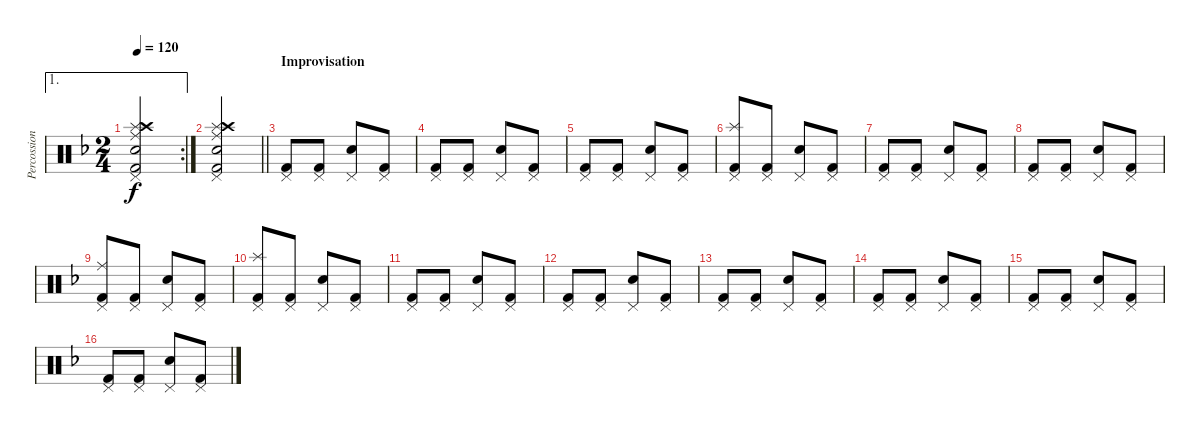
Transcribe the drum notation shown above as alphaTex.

\track ("Percossion" "Percossion") {instrument percussion}
\staff {score}
\articulation defaults
\ae 1
\rc 2
\ts (2 4)
\tempo 120
\clef neutral
\ks f
("Pedal Hi-Hat (hit)" "Splash (hit)" "Ride (middle)" "Crash high (hit)" "Snare (hit) 2" "Kick (hit) 2").2{dy f} |
\barLineRight lightlight
("Pedal Hi-Hat (hit)" "Splash (hit)" "Ride (middle)" "Crash high (hit)" "Snare (hit) 2" "Kick (hit) 2").2 |
\section ("" "Improvisation")
("Pedal Hi-Hat (hit)" "Kick (hit) 2").8 ("Pedal Hi-Hat (hit)" "Kick (hit) 2").8 ("Pedal Hi-Hat (hit)" "Snare (hit) 2").8 ("Pedal Hi-Hat (hit)" "Kick (hit) 2").8 |
("Pedal Hi-Hat (hit)" "Kick (hit) 2").8 ("Pedal Hi-Hat (hit)" "Kick (hit) 2").8 ("Pedal Hi-Hat (hit)" "Snare (hit) 2").8 ("Pedal Hi-Hat (hit)" "Kick (hit) 2").8 |
("Pedal Hi-Hat (hit)" "Kick (hit) 2").8 ("Pedal Hi-Hat (hit)" "Kick (hit) 2").8 ("Pedal Hi-Hat (hit)" "Snare (hit) 2").8 ("Pedal Hi-Hat (hit)" "Kick (hit) 2").8 |
("Pedal Hi-Hat (hit)" "Splash (hit)" "Kick (hit) 2").8 ("Pedal Hi-Hat (hit)" "Kick (hit) 2").8 ("Pedal Hi-Hat (hit)" "Snare (hit) 2").8 ("Pedal Hi-Hat (hit)" "Kick (hit) 2").8 |
("Pedal Hi-Hat (hit)" "Kick (hit) 2").8 ("Pedal Hi-Hat (hit)" "Kick (hit) 2").8 ("Pedal Hi-Hat (hit)" "Snare (hit) 2").8 ("Pedal Hi-Hat (hit)" "Kick (hit) 2").8 |
("Pedal Hi-Hat (hit)" "Kick (hit) 2").8 ("Pedal Hi-Hat (hit)" "Kick (hit) 2").8 ("Pedal Hi-Hat (hit)" "Snare (hit) 2").8 ("Pedal Hi-Hat (hit)" "Kick (hit) 2").8 |
("Pedal Hi-Hat (hit)" "Ride (middle)" "Kick (hit) 2").8 ("Pedal Hi-Hat (hit)" "Kick (hit) 2").8 ("Pedal Hi-Hat (hit)" "Snare (hit) 2").8 ("Pedal Hi-Hat (hit)" "Kick (hit) 2").8 |
("Pedal Hi-Hat (hit)" "Splash (hit)" "Kick (hit) 2").8 ("Pedal Hi-Hat (hit)" "Kick (hit) 2").8 ("Pedal Hi-Hat (hit)" "Snare (hit) 2").8 ("Pedal Hi-Hat (hit)" "Kick (hit) 2").8 |
("Pedal Hi-Hat (hit)" "Kick (hit) 2").8 ("Pedal Hi-Hat (hit)" "Kick (hit) 2").8 ("Pedal Hi-Hat (hit)" "Snare (hit) 2").8 ("Pedal Hi-Hat (hit)" "Kick (hit) 2").8 |
("Pedal Hi-Hat (hit)" "Kick (hit) 2").8 ("Pedal Hi-Hat (hit)" "Kick (hit) 2").8 ("Pedal Hi-Hat (hit)" "Snare (hit) 2").8 ("Pedal Hi-Hat (hit)" "Kick (hit) 2").8 |
("Pedal Hi-Hat (hit)" "Kick (hit) 2").8 ("Pedal Hi-Hat (hit)" "Kick (hit) 2").8 ("Pedal Hi-Hat (hit)" "Snare (hit) 2").8 ("Pedal Hi-Hat (hit)" "Kick (hit) 2").8 |
("Pedal Hi-Hat (hit)" "Kick (hit) 2").8 ("Pedal Hi-Hat (hit)" "Kick (hit) 2").8 ("Pedal Hi-Hat (hit)" "Snare (hit) 2").8 ("Pedal Hi-Hat (hit)" "Kick (hit) 2").8 |
("Pedal Hi-Hat (hit)" "Kick (hit) 2").8 ("Pedal Hi-Hat (hit)" "Kick (hit) 2").8 ("Pedal Hi-Hat (hit)" "Snare (hit) 2").8 ("Pedal Hi-Hat (hit)" "Kick (hit) 2").8 |
("Pedal Hi-Hat (hit)" "Kick (hit) 2").8 ("Pedal Hi-Hat (hit)" "Kick (hit) 2").8 ("Pedal Hi-Hat (hit)" "Snare (hit) 2").8 ("Pedal Hi-Hat (hit)" "Kick (hit) 2").8
